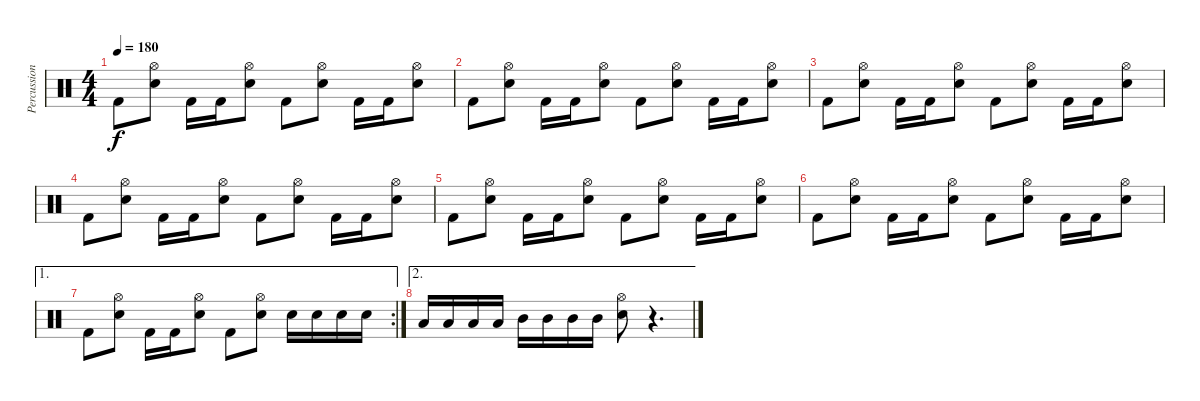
\track ("Percussion" "Percussion") {instrument percussion}
\staff {score}
\articulation defaults
\ts (4 4)
\tempo 180
\clef neutral
\ks c "Kick (hit) 2".8{dy f}
("Hi-Hat (open)" "Snare (hit) 2").8 "Kick (hit) 2".16 "Kick (hit) 2".16 ("Hi-Hat (open)" "Snare (hit) 2").8 "Kick (hit) 2".8 ("Hi-Hat (open)" "Snare (hit) 2").8 "Kick (hit) 2".16 "Kick (hit) 2".16 ("Hi-Hat (open)" "Snare (hit) 2").8 |
"Kick (hit) 2".8 ("Hi-Hat (open)" "Snare (hit) 2").8 "Kick (hit) 2".16 "Kick (hit) 2".16 ("Hi-Hat (open)" "Snare (hit) 2").8 "Kick (hit) 2".8 ("Hi-Hat (open)" "Snare (hit) 2").8 "Kick (hit) 2".16 "Kick (hit) 2".16 ("Hi-Hat (open)" "Snare (hit) 2").8 |
"Kick (hit) 2".8 ("Hi-Hat (open)" "Snare (hit) 2").8 "Kick (hit) 2".16 "Kick (hit) 2".16 ("Hi-Hat (open)" "Snare (hit) 2").8 "Kick (hit) 2".8 ("Hi-Hat (open)" "Snare (hit) 2").8 "Kick (hit) 2".16 "Kick (hit) 2".16 ("Hi-Hat (open)" "Snare (hit) 2").8 |
"Kick (hit) 2".8 ("Hi-Hat (open)" "Snare (hit) 2").8 "Kick (hit) 2".16 "Kick (hit) 2".16 ("Hi-Hat (open)" "Snare (hit) 2").8 "Kick (hit) 2".8 ("Hi-Hat (open)" "Snare (hit) 2").8 "Kick (hit) 2".16 "Kick (hit) 2".16 ("Hi-Hat (open)" "Snare (hit) 2").8 |
"Kick (hit) 2".8 ("Hi-Hat (open)" "Snare (hit) 2").8 "Kick (hit) 2".16 "Kick (hit) 2".16 ("Hi-Hat (open)" "Snare (hit) 2").8 "Kick (hit) 2".8 ("Hi-Hat (open)" "Snare (hit) 2").8 "Kick (hit) 2".16 "Kick (hit) 2".16 ("Hi-Hat (open)" "Snare (hit) 2").8 |
"Kick (hit) 2".8 ("Hi-Hat (open)" "Snare (hit) 2").8 "Kick (hit) 2".16 "Kick (hit) 2".16 ("Hi-Hat (open)" "Snare (hit) 2").8 "Kick (hit) 2".8 ("Hi-Hat (open)" "Snare (hit) 2").8 "Kick (hit) 2".16 "Kick (hit) 2".16 ("Hi-Hat (open)" "Snare (hit) 2").8 |
\ae 1
\rc 2 "Kick (hit) 2".8
("Hi-Hat (open)" "Snare (hit) 2").8 "Kick (hit) 2".16 "Kick (hit) 2".16 ("Hi-Hat (open)" "Snare (hit) 2").8 "Kick (hit) 2".8 ("Hi-Hat (open)" "Snare (hit) 2").8 "Snare (hit) 2".16 "Snare (hit) 2".16 "Snare (hit) 2".16 "Snare (hit) 2".16 |
\ae 2 "Low Tom (hit)".16 "Low Tom (hit)".16 "Low Tom (hit)".16 "Low Tom (hit)".16 "Mid Tom (hit)".16 "Mid Tom (hit)".16 "Mid Tom (hit)".16 "Mid Tom (hit)".16
("Hi-Hat (open)" "Snare (hit) 2").8 r.4{d}
